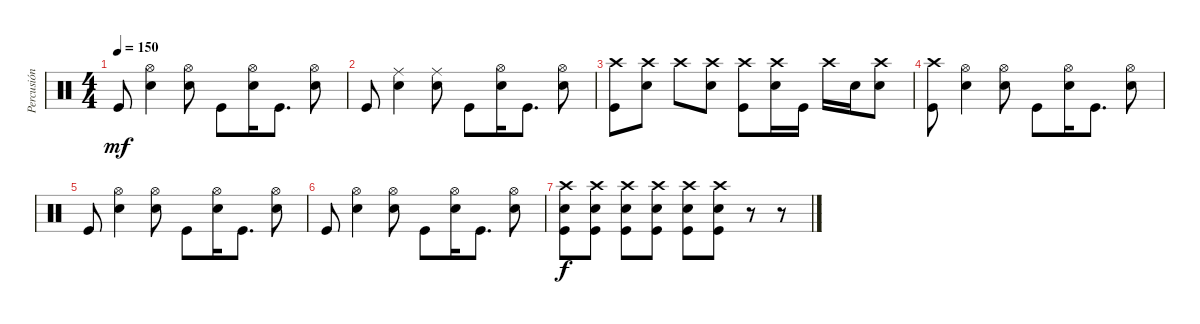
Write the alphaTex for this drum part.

\track ("Percusión" "Percusión") {instrument percussion}
\staff {score}
\articulation defaults
\ts (4 4)
\tempo 150
\clef neutral
\ks c "Kick (hit)".8{dy mf}
("Snare (hit) 2" "Hi-Hat (open)").4 ("Snare (hit) 2" "Hi-Hat (open)").8 "Kick (hit)".8 ("Snare (hit) 2" "Hi-Hat (open)").16 "Kick (hit)".8{d} ("Snare (hit) 2" "Hi-Hat (open)").8 |
"Kick (hit)".8 ("Snare (hit) 2" "Ride (middle)").4 ("Snare (hit) 2" "Ride (middle)").8 "Kick (hit)".8 ("Snare (hit) 2" "Hi-Hat (open)").16 "Kick (hit)".8{d} ("Snare (hit) 2" "Hi-Hat (open)").8 |
("Kick (hit)" "Crash high (hit)").8 ("Snare (hit) 2" "Crash high (hit)").8 "Crash high (hit)".8 ("Snare (hit) 2" "Crash high (hit)").8 ("Kick (hit)" "Crash high (hit)").8 ("Snare (hit) 2" "Crash high (hit)").16 "Kick (hit)".16 "Crash high (hit)".16 "Snare (hit) 2".16 ("Snare (hit) 2" "Crash high (hit)").8 |
("Kick (hit)" "Crash high (hit)").8 ("Snare (hit) 2" "Hi-Hat (open)").4 ("Snare (hit) 2" "Hi-Hat (open)").8 "Kick (hit)".8 ("Snare (hit) 2" "Hi-Hat (open)").16 "Kick (hit)".8{d} ("Snare (hit) 2" "Hi-Hat (open)").8 |
"Kick (hit)".8 ("Snare (hit) 2" "Hi-Hat (open)").4 ("Snare (hit) 2" "Hi-Hat (open)").8 "Kick (hit)".8 ("Snare (hit) 2" "Hi-Hat (open)").16 "Kick (hit)".8{d} ("Snare (hit) 2" "Hi-Hat (open)").8 |
"Kick (hit)".8 ("Snare (hit) 2" "Hi-Hat (open)").4 ("Snare (hit) 2" "Hi-Hat (open)").8 "Kick (hit)".8 ("Snare (hit) 2" "Hi-Hat (open)").16 "Kick (hit)".8{d} ("Snare (hit) 2" "Hi-Hat (open)").8 |
("Kick (hit)" "Snare (hit) 2" "Crash high (hit)").8{dy f} ("Kick (hit)" "Snare (hit) 2" "Crash high (hit)").8 ("Kick (hit)" "Snare (hit) 2" "Crash high (hit)").8 ("Kick (hit)" "Snare (hit) 2" "Crash high (hit)").8 ("Kick (hit)" "Snare (hit) 2" "Crash high (hit)").8 ("Kick (hit)" "Snare (hit) 2" "Crash high (hit)").8 r.8 r.8
